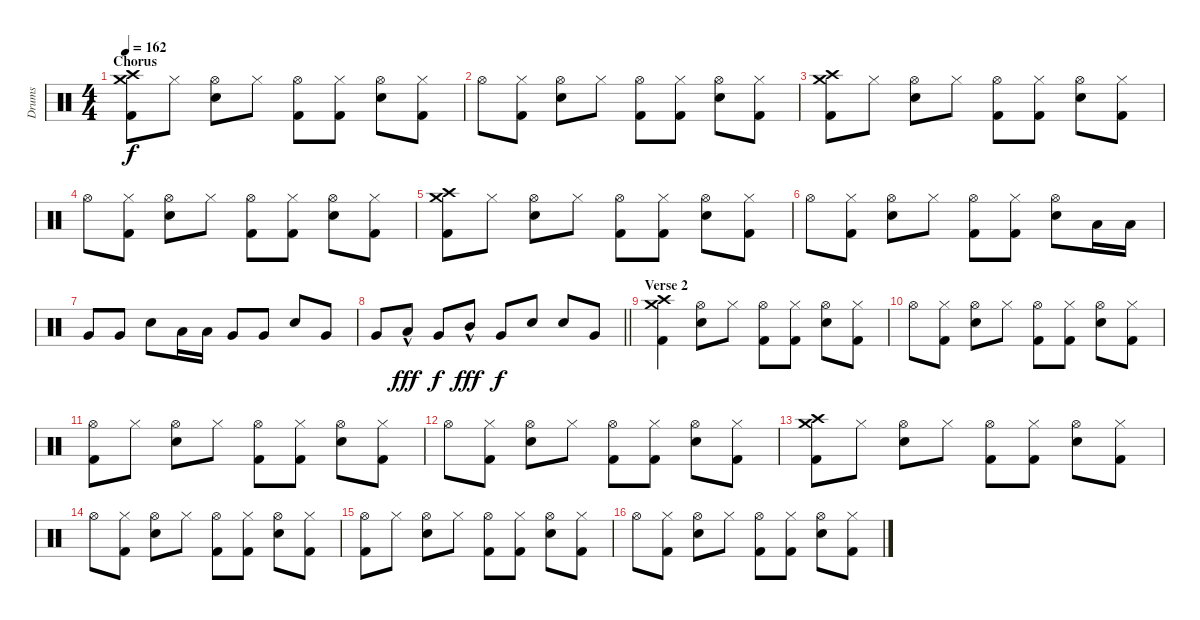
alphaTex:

\track ("Drums" "Drums") {instrument percussion}
\staff {score}
\articulation defaults
\ts (4 4)
\section ("" "Chorus")
\tempo 162
\clef neutral
\ks c
("Crash high (hit)" "Crash medium (hit)" "Kick (hit) 2").8{dy f} "Hi-Hat (closed)".8 ("Hi-Hat (open)" "Snare (hit) 2").8 "Hi-Hat (closed)".8 ("Hi-Hat (open)" "Kick (hit) 2").8 ("Hi-Hat (closed)" "Kick (hit) 2").8 ("Hi-Hat (open)" "Snare (hit) 2").8 ("Hi-Hat (closed)" "Kick (hit) 2").8 |
"Hi-Hat (open)".8 ("Hi-Hat (closed)" "Kick (hit) 2").8 ("Hi-Hat (open)" "Snare (hit) 2").8 "Hi-Hat (closed)".8 ("Hi-Hat (open)" "Kick (hit) 2").8 ("Hi-Hat (closed)" "Kick (hit) 2").8 ("Hi-Hat (open)" "Snare (hit) 2").8 ("Hi-Hat (closed)" "Kick (hit) 2").8 |
("Crash high (hit)" "Crash medium (hit)" "Kick (hit) 2").8 "Hi-Hat (closed)".8 ("Hi-Hat (open)" "Snare (hit) 2").8 "Hi-Hat (closed)".8 ("Hi-Hat (open)" "Kick (hit) 2").8 ("Hi-Hat (closed)" "Kick (hit) 2").8 ("Hi-Hat (open)" "Snare (hit) 2").8 ("Hi-Hat (closed)" "Kick (hit) 2").8 |
"Hi-Hat (open)".8 ("Hi-Hat (closed)" "Kick (hit) 2").8 ("Hi-Hat (open)" "Snare (hit) 2").8 "Hi-Hat (closed)".8 ("Hi-Hat (open)" "Kick (hit) 2").8 ("Hi-Hat (closed)" "Kick (hit) 2").8 ("Hi-Hat (open)" "Snare (hit) 2").8 ("Hi-Hat (closed)" "Kick (hit) 2").8 |
("Crash high (hit)" "Crash medium (hit)" "Kick (hit) 2").8 "Hi-Hat (closed)".8 ("Hi-Hat (open)" "Snare (hit) 2").8 "Hi-Hat (closed)".8 ("Hi-Hat (open)" "Kick (hit) 2").8 ("Hi-Hat (closed)" "Kick (hit) 2").8 ("Hi-Hat (open)" "Snare (hit) 2").8 ("Hi-Hat (closed)" "Kick (hit) 2").8 |
"Hi-Hat (open)".8 ("Hi-Hat (closed)" "Kick (hit) 2").8 ("Hi-Hat (open)" "Snare (hit) 2").8 "Hi-Hat (closed)".8 ("Hi-Hat (open)" "Kick (hit) 2").8 ("Hi-Hat (closed)" "Kick (hit) 2").8 ("Hi-Hat (open)" "Snare (hit) 2").8 "Low Tom (hit)".16 "Low Tom (hit)".16 |
"Very Low Tom (hit)".8 "Very Low Tom (hit)".8 "Snare (hit) 2".8 "Low Tom (hit)".16 "Low Tom (hit)".16 "Very Low Tom (hit)".8 "Very Low Tom (hit)".8 "Snare (hit) 2".8 "Very Low Tom (hit)".8 |
\barLineRight lightlight "Very Low Tom (hit)".8 "Low Tom (hit)"{hac}.8{dy fff} "Very Low Tom (hit)".8{dy f} "Mid Tom (hit)"{hac}.8{dy fff} "Very Low Tom (hit)".8{dy f} "Snare (hit) 2".8 "Snare (hit) 2".8 "Very Low Tom (hit)".8
|
\section ("" "Verse 2")
("Crash high (hit)" "Crash medium (hit)" "Kick (hit) 2").4 ("Hi-Hat (open)" "Snare (hit) 2").8 "Hi-Hat (closed)".8 ("Hi-Hat (open)" "Kick (hit) 2").8 ("Hi-Hat (closed)" "Kick (hit) 2").8 ("Hi-Hat (open)" "Snare (hit) 2").8 ("Hi-Hat (closed)" "Kick (hit) 2").8 |
"Hi-Hat (open)".8 ("Hi-Hat (closed)" "Kick (hit) 2").8 ("Hi-Hat (open)" "Snare (hit) 2").8 "Hi-Hat (closed)".8 ("Hi-Hat (open)" "Kick (hit) 2").8 ("Hi-Hat (closed)" "Kick (hit) 2").8 ("Hi-Hat (open)" "Snare (hit) 2").8 ("Hi-Hat (closed)" "Kick (hit) 2").8 |
("Hi-Hat (open)" "Kick (hit) 2").8 "Hi-Hat (closed)".8 ("Hi-Hat (open)" "Snare (hit) 2").8 "Hi-Hat (closed)".8 ("Hi-Hat (open)" "Kick (hit) 2").8 ("Hi-Hat (closed)" "Kick (hit) 2").8 ("Hi-Hat (open)" "Snare (hit) 2").8 ("Hi-Hat (closed)" "Kick (hit) 2").8 |
"Hi-Hat (open)".8 ("Hi-Hat (closed)" "Kick (hit) 2").8 ("Hi-Hat (open)" "Snare (hit) 2").8 "Hi-Hat (closed)".8 ("Hi-Hat (open)" "Kick (hit) 2").8 ("Hi-Hat (closed)" "Kick (hit) 2").8 ("Hi-Hat (open)" "Snare (hit) 2").8 ("Hi-Hat (closed)" "Kick (hit) 2").8 |
("Crash high (hit)" "Crash medium (hit)" "Kick (hit) 2").8 "Hi-Hat (closed)".8 ("Hi-Hat (open)" "Snare (hit) 2").8 "Hi-Hat (closed)".8 ("Hi-Hat (open)" "Kick (hit) 2").8 ("Hi-Hat (closed)" "Kick (hit) 2").8 ("Hi-Hat (open)" "Snare (hit) 2").8 ("Hi-Hat (closed)" "Kick (hit) 2").8 |
"Hi-Hat (open)".8 ("Hi-Hat (closed)" "Kick (hit) 2").8 ("Hi-Hat (open)" "Snare (hit) 2").8 "Hi-Hat (closed)".8 ("Hi-Hat (open)" "Kick (hit) 2").8 ("Hi-Hat (closed)" "Kick (hit) 2").8 ("Hi-Hat (open)" "Snare (hit) 2").8 ("Hi-Hat (closed)" "Kick (hit) 2").8 |
("Hi-Hat (open)" "Kick (hit) 2").8 "Hi-Hat (closed)".8 ("Hi-Hat (open)" "Snare (hit) 2").8 "Hi-Hat (closed)".8 ("Hi-Hat (open)" "Kick (hit) 2").8 ("Hi-Hat (closed)" "Kick (hit) 2").8 ("Hi-Hat (open)" "Snare (hit) 2").8 ("Hi-Hat (closed)" "Kick (hit) 2").8 |
"Hi-Hat (open)".8 ("Hi-Hat (closed)" "Kick (hit) 2").8 ("Hi-Hat (open)" "Snare (hit) 2").8 "Hi-Hat (closed)".8 ("Hi-Hat (open)" "Kick (hit) 2").8 ("Hi-Hat (closed)" "Kick (hit) 2").8 ("Hi-Hat (open)" "Snare (hit) 2").8 ("Hi-Hat (closed)" "Kick (hit) 2").8
